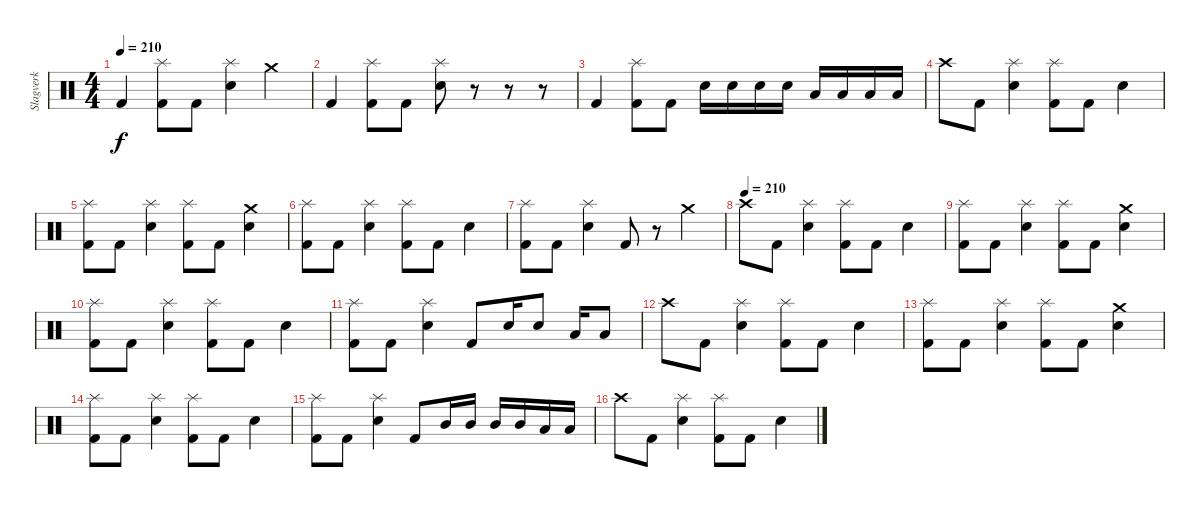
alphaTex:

\track ("Slagverk" "Slagverk") {instrument percussion}
\staff {score}
\articulation defaults
\ts (4 4)
\tempo 210
\clef neutral
\ks c "Kick (hit) 2".4{dy f}
("Splash (hit)" "Kick (hit) 2").8 "Kick (hit) 2".8 ("Splash (hit)" "Electric Snare (hit)").4 "Crash medium (hit)".4 |
"Kick (hit) 2".4 ("Splash (hit)" "Kick (hit) 2").8 "Kick (hit) 2".8 ("Splash (hit)" "Electric Snare (hit)").8 r.8 r.8 r.8 |
"Kick (hit) 2".4 ("Splash (hit)" "Kick (hit) 2").8 "Kick (hit) 2".8 "Electric Snare (hit)".16 "Electric Snare (hit)".16 "Electric Snare (hit)".16 "Electric Snare (hit)".16 "Low Tom (hit)".16 "Low Tom (hit)".16 "Low Tom (hit)".16 "Low Tom (hit)".16 |
"Crash high (hit)".8 "Kick (hit) 2".8 ("Splash (hit)" "Electric Snare (hit)").4 ("Splash (hit)" "Kick (hit) 2").8 "Kick (hit) 2".8 "Electric Snare (hit)".4 |
("Splash (hit)" "Kick (hit) 2").8 "Kick (hit) 2".8 ("Splash (hit)" "Electric Snare (hit)").4 ("Splash (hit)" "Kick (hit) 2").8 "Kick (hit) 2".8 ("Crash medium (hit)" "Electric Snare (hit)").4 |
("Splash (hit)" "Kick (hit) 2").8 "Kick (hit) 2".8 ("Splash (hit)" "Electric Snare (hit)").4 ("Splash (hit)" "Kick (hit) 2").8 "Kick (hit) 2".8 "Electric Snare (hit)".4 |
("Splash (hit)" "Kick (hit) 2").8 "Kick (hit) 2".8 ("Splash (hit)" "Electric Snare (hit)").4 "Kick (hit) 2".8 r.8 "Crash medium (hit)".4 |
\tempo (210)
"Crash high (hit)".8 "Kick (hit) 2".8 ("Splash (hit)" "Electric Snare (hit)").4 ("Splash (hit)" "Kick (hit) 2").8 "Kick (hit) 2".8 "Electric Snare (hit)".4 |
("Splash (hit)" "Kick (hit) 2").8 "Kick (hit) 2".8 ("Splash (hit)" "Electric Snare (hit)").4 ("Splash (hit)" "Kick (hit) 2").8 "Kick (hit) 2".8 ("Crash medium (hit)" "Electric Snare (hit)").4 |
("Splash (hit)" "Kick (hit) 2").8 "Kick (hit) 2".8 ("Splash (hit)" "Electric Snare (hit)").4 ("Splash (hit)" "Kick (hit) 2").8 "Kick (hit) 2".8 "Electric Snare (hit)".4 |
("Splash (hit)" "Kick (hit) 2").8 "Kick (hit) 2".8 ("Splash (hit)" "Electric Snare (hit)").4 "Kick (hit) 2".8 "Electric Snare (hit)".16 "Electric Snare (hit)".8 "Low Tom (hit)".16 "Low Tom (hit)".8 |
"Crash high (hit)".8 "Kick (hit) 2".8 ("Splash (hit)" "Electric Snare (hit)").4 ("Splash (hit)" "Kick (hit) 2").8 "Kick (hit) 2".8 "Electric Snare (hit)".4 |
("Splash (hit)" "Kick (hit) 2").8 "Kick (hit) 2".8 ("Splash (hit)" "Electric Snare (hit)").4 ("Splash (hit)" "Kick (hit) 2").8 "Kick (hit) 2".8 ("Crash medium (hit)" "Electric Snare (hit)").4 |
("Splash (hit)" "Kick (hit) 2").8 "Kick (hit) 2".8 ("Splash (hit)" "Electric Snare (hit)").4 ("Splash (hit)" "Kick (hit) 2").8 "Kick (hit) 2".8 "Electric Snare (hit)".4 |
("Splash (hit)" "Kick (hit) 2").8 "Kick (hit) 2".8 ("Splash (hit)" "Electric Snare (hit)").4 "Kick (hit) 2".8 "Mid Tom (hit)".16 "Mid Tom (hit)".16 "Mid Tom (hit)".16 "Mid Tom (hit)".16 "Low Tom (hit)".16 "Low Tom (hit)".16 |
"Crash high (hit)".8 "Kick (hit) 2".8 ("Splash (hit)" "Electric Snare (hit)").4 ("Splash (hit)" "Kick (hit) 2").8 "Kick (hit) 2".8 "Electric Snare (hit)".4
